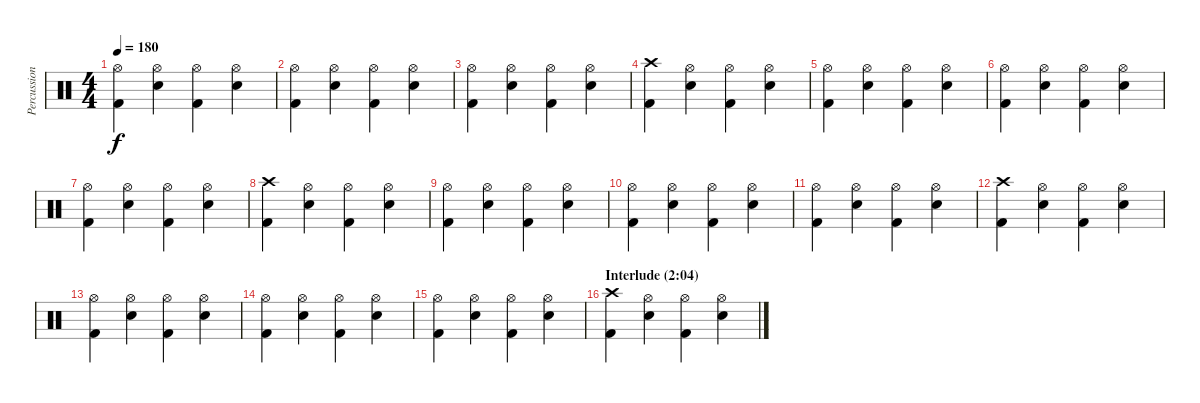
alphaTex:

\track ("Percussion" "Percussion") {instrument percussion}
\staff {score}
\articulation defaults
\ts (4 4)
\tempo 180
\clef neutral
\ks c
("Hi-Hat (open)" "Kick (hit) 2").4{dy f} ("Hi-Hat (open)" "Electric Snare (hit)").4 ("Hi-Hat (open)" "Kick (hit) 2").4 ("Hi-Hat (open)" "Electric Snare (hit)").4 |
("Hi-Hat (open)" "Kick (hit) 2").4 ("Hi-Hat (open)" "Electric Snare (hit)").4 ("Hi-Hat (open)" "Kick (hit) 2").4 ("Hi-Hat (open)" "Electric Snare (hit)").4 |
("Hi-Hat (open)" "Kick (hit) 2").4 ("Hi-Hat (open)" "Electric Snare (hit)").4 ("Hi-Hat (open)" "Kick (hit) 2").4 ("Hi-Hat (open)" "Electric Snare (hit)").4 |
("Crash high (hit)" "Kick (hit) 2").4 ("Hi-Hat (open)" "Electric Snare (hit)").4 ("Hi-Hat (open)" "Kick (hit) 2").4 ("Hi-Hat (open)" "Electric Snare (hit)").4 |
("Hi-Hat (open)" "Kick (hit) 2").4 ("Hi-Hat (open)" "Electric Snare (hit)").4 ("Hi-Hat (open)" "Kick (hit) 2").4 ("Hi-Hat (open)" "Electric Snare (hit)").4 |
("Hi-Hat (open)" "Kick (hit) 2").4 ("Hi-Hat (open)" "Electric Snare (hit)").4 ("Hi-Hat (open)" "Kick (hit) 2").4 ("Hi-Hat (open)" "Electric Snare (hit)").4 |
("Hi-Hat (open)" "Kick (hit) 2").4 ("Hi-Hat (open)" "Electric Snare (hit)").4 ("Hi-Hat (open)" "Kick (hit) 2").4 ("Hi-Hat (open)" "Electric Snare (hit)").4 |
("Crash high (hit)" "Kick (hit) 2").4 ("Hi-Hat (open)" "Electric Snare (hit)").4 ("Hi-Hat (open)" "Kick (hit) 2").4 ("Hi-Hat (open)" "Electric Snare (hit)").4 |
("Hi-Hat (open)" "Kick (hit) 2").4 ("Hi-Hat (open)" "Electric Snare (hit)").4 ("Hi-Hat (open)" "Kick (hit) 2").4 ("Hi-Hat (open)" "Electric Snare (hit)").4 |
("Hi-Hat (open)" "Kick (hit) 2").4 ("Hi-Hat (open)" "Electric Snare (hit)").4 ("Hi-Hat (open)" "Kick (hit) 2").4 ("Hi-Hat (open)" "Electric Snare (hit)").4 |
("Hi-Hat (open)" "Kick (hit) 2").4 ("Hi-Hat (open)" "Electric Snare (hit)").4 ("Hi-Hat (open)" "Kick (hit) 2").4 ("Hi-Hat (open)" "Electric Snare (hit)").4 |
("Crash high (hit)" "Kick (hit) 2").4 ("Hi-Hat (open)" "Electric Snare (hit)").4 ("Hi-Hat (open)" "Kick (hit) 2").4 ("Hi-Hat (open)" "Electric Snare (hit)").4 |
("Hi-Hat (open)" "Kick (hit) 2").4 ("Hi-Hat (open)" "Electric Snare (hit)").4 ("Hi-Hat (open)" "Kick (hit) 2").4 ("Hi-Hat (open)" "Electric Snare (hit)").4 |
("Hi-Hat (open)" "Kick (hit) 2").4 ("Hi-Hat (open)" "Electric Snare (hit)").4 ("Hi-Hat (open)" "Kick (hit) 2").4 ("Hi-Hat (open)" "Electric Snare (hit)").4 |
("Hi-Hat (open)" "Kick (hit) 2").4 ("Hi-Hat (open)" "Electric Snare (hit)").4 ("Hi-Hat (open)" "Kick (hit) 2").4 ("Hi-Hat (open)" "Electric Snare (hit)").4 |
\section ("" "Interlude (2:04)")
("Crash high (hit)" "Kick (hit) 2").4 ("Hi-Hat (open)" "Electric Snare (hit)").4 ("Hi-Hat (open)" "Kick (hit) 2").4 ("Hi-Hat (open)" "Electric Snare (hit)").4
